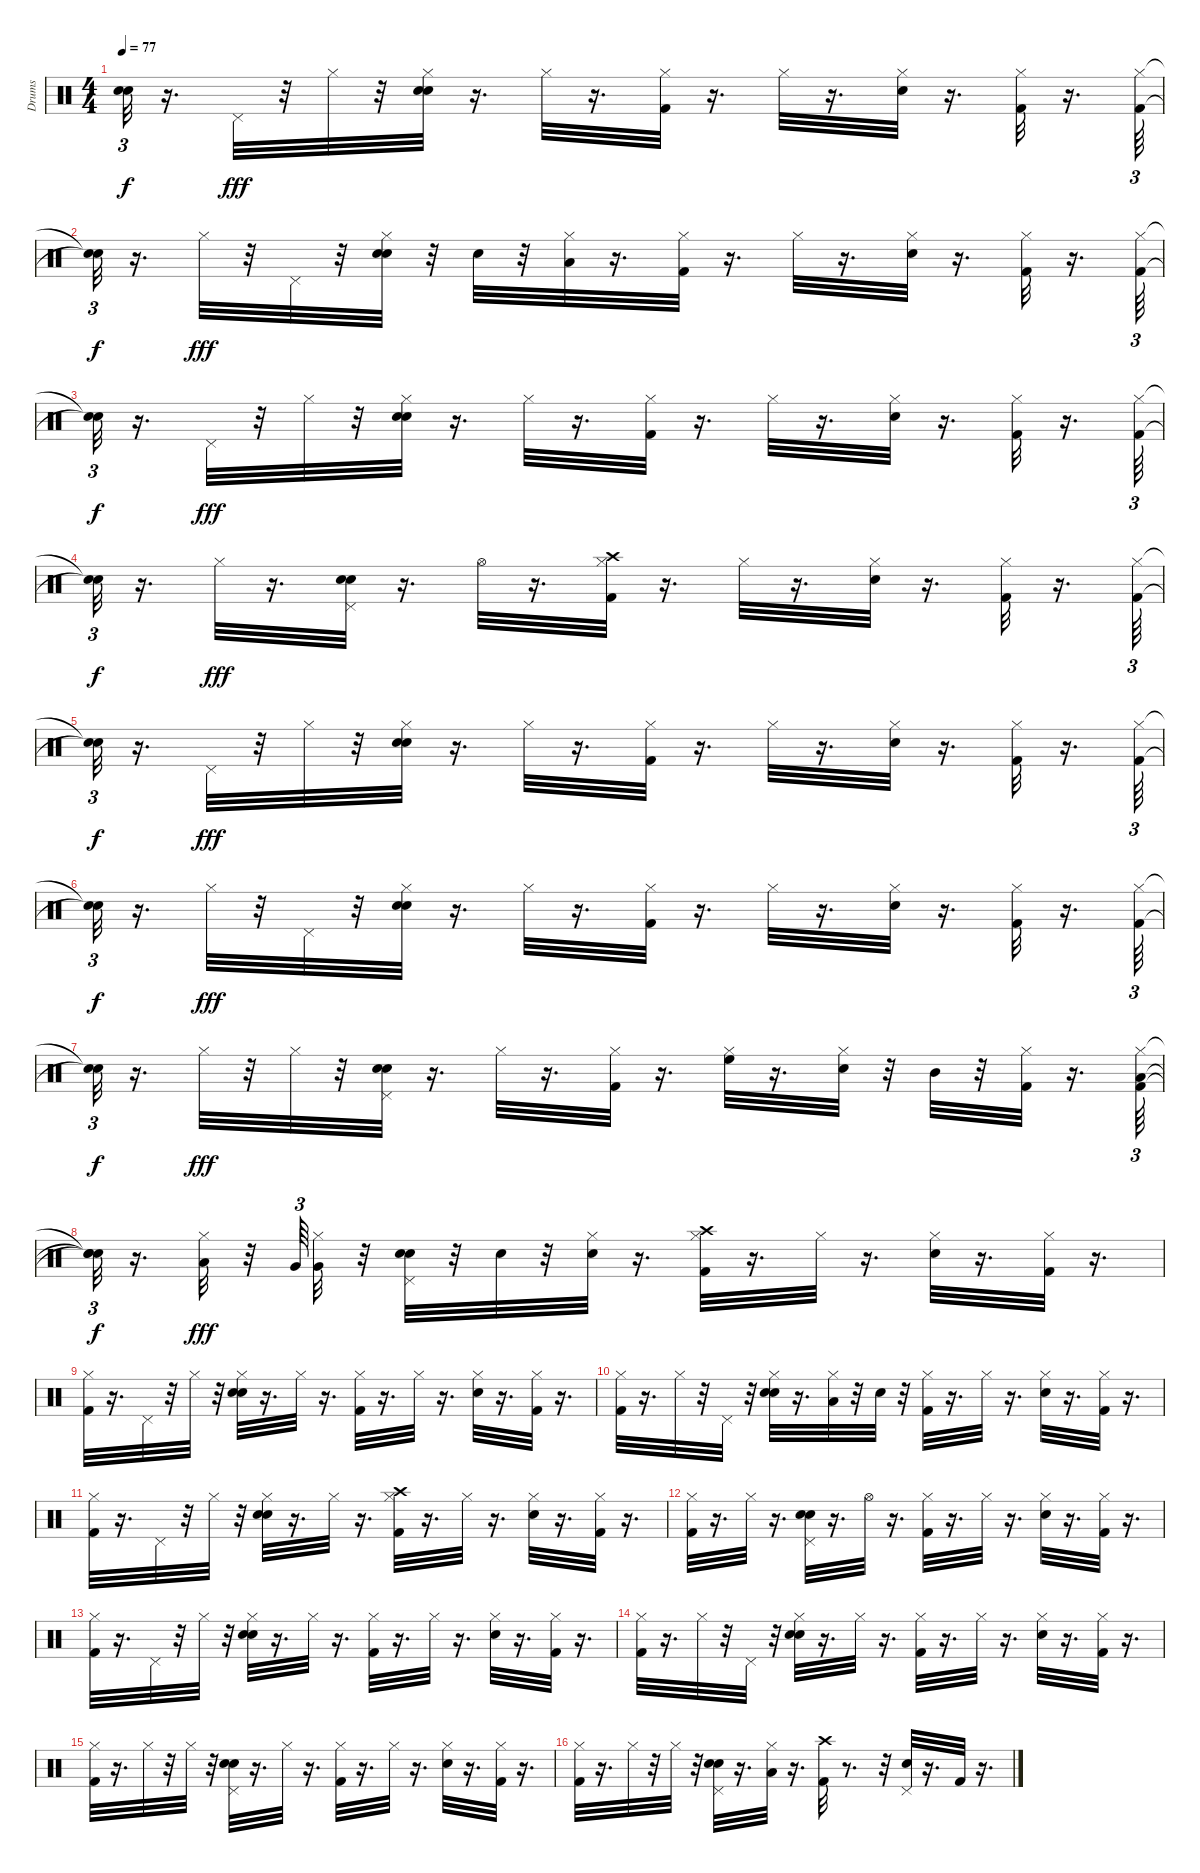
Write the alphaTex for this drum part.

\track ("Drums   " "Drums   ") {instrument percussion}
\staff {score}
\articulation defaults
\ts (4 4)
\tempo 77
\clef neutral
\ks c
("Snare (hit)"{t} "Snare (hit)"{t}).32{tu (3 2) dy f} r.16{d} "Pedal Hi-Hat (hit)".32{dy fff} r.32 "Hi-Hat (closed)".32 r.32 ("Snare (hit) 2" "Hand Clap (hit)" "Hi-Hat (closed)").32 r.16{d} "Hi-Hat (closed)".32 r.16{d} ("Kick (hit) 2" "Hi-Hat (closed)").32 r.16{d} "Hi-Hat (closed)".32 r.16{d} ("Snare (hit) 2" "Hi-Hat (closed)").32 r.16{d} ("Kick (hit) 2" "Hi-Hat (closed)").32 r.16{d} ("Kick (hit) 2" "Hi-Hat (closed)").64{tu (3 2)} |
("Snare (hit)"{t} "Snare (hit)"{t}).32{tu (3 2) dy f} r.16{d} "Hi-Hat (closed)".32{dy fff} r.32 "Pedal Hi-Hat (hit)".32 r.32 ("Snare (hit) 2" "Hand Clap (hit)" "Hi-Hat (closed)").32 r.32 "Snare (hit) 2".32 r.32 ("Hi-Hat (closed)" "Low Tom (hit)").32 r.16{d} ("Kick (hit) 2" "Hi-Hat (closed)").32 r.16{d} "Hi-Hat (closed)".32 r.16{d} ("Snare (hit) 2" "Hi-Hat (closed)").32 r.16{d} ("Kick (hit) 2" "Hi-Hat (closed)").32 r.16{d} ("Kick (hit) 2" "Hi-Hat (closed)").64{tu (3 2)} |
("Snare (hit)"{t} "Snare (hit)"{t}).32{tu (3 2) dy f} r.16{d} "Pedal Hi-Hat (hit)".32{dy fff} r.32 "Hi-Hat (closed)".32 r.32 ("Snare (hit) 2" "Hand Clap (hit)" "Hi-Hat (closed)").32 r.16{d} "Hi-Hat (closed)".32 r.16{d} ("Kick (hit) 2" "Hi-Hat (closed)").32 r.16{d} "Hi-Hat (closed)".32 r.16{d} ("Snare (hit) 2" "Hi-Hat (closed)").32 r.16{d} ("Kick (hit) 2" "Hi-Hat (closed)").32 r.16{d} ("Kick (hit) 2" "Hi-Hat (closed)").64{tu (3 2)} |
("Snare (hit)"{t} "Snare (hit)"{t}).32{tu (3 2) dy f} r.16{d} "Hi-Hat (closed)".32{dy fff} r.16{d} ("Snare (hit) 2" "Hand Clap (hit)" "Pedal Hi-Hat (hit)").32 r.16{d} "Hi-Hat (open)".32 r.16{d} ("Kick (hit) 2" "Hi-Hat (closed)" "Crash high (hit)").32 r.16{d} "Hi-Hat (closed)".32 r.16{d} ("Snare (hit) 2" "Hi-Hat (closed)").32 r.16{d} ("Kick (hit) 2" "Hi-Hat (closed)").32 r.16{d} ("Kick (hit) 2" "Hi-Hat (closed)").64{tu (3 2)} |
("Snare (hit)"{t} "Snare (hit)"{t}).32{tu (3 2) dy f} r.16{d} "Pedal Hi-Hat (hit)".32{dy fff} r.32 "Hi-Hat (closed)".32 r.32 ("Snare (hit) 2" "Hand Clap (hit)" "Hi-Hat (closed)").32 r.16{d} "Hi-Hat (closed)".32 r.16{d} ("Kick (hit) 2" "Hi-Hat (closed)").32 r.16{d} "Hi-Hat (closed)".32 r.16{d} ("Snare (hit) 2" "Hi-Hat (closed)").32 r.16{d} ("Kick (hit) 2" "Hi-Hat (closed)").32 r.16{d} ("Kick (hit) 2" "Hi-Hat (closed)").64{tu (3 2)} |
("Snare (hit)"{t} "Snare (hit)"{t}).32{tu (3 2) dy f} r.16{d} "Hi-Hat (closed)".32{dy fff} r.32 "Pedal Hi-Hat (hit)".32 r.32 ("Snare (hit) 2" "Hand Clap (hit)" "Hi-Hat (closed)").32 r.16{d} "Hi-Hat (closed)".32 r.16{d} ("Kick (hit) 2" "Hi-Hat (closed)").32 r.16{d} "Hi-Hat (closed)".32 r.16{d} ("Snare (hit) 2" "Hi-Hat (closed)").32 r.16{d} ("Kick (hit) 2" "Hi-Hat (closed)").32 r.16{d} ("Kick (hit) 2" "Hi-Hat (closed)").64{tu (3 2)} |
("Snare (hit)"{t} "Snare (hit)"{t}).32{tu (3 2) dy f} r.16{d} "Hi-Hat (closed)".32{dy fff} r.32 "Hi-Hat (closed)".32 r.32 ("Snare (hit) 2" "Hand Clap (hit)" "Pedal Hi-Hat (hit)").32 r.16{d} "Hi-Hat (closed)".32 r.16{d} ("Kick (hit) 2" "Hi-Hat (closed)").32 r.16{d} ("Hi-Hat (closed)" "High Floor Tom (hit)").32 r.16{d} ("Snare (hit) 2" "Hi-Hat (closed)").32 r.32 "Mid Tom (hit)".32 r.32 ("Kick (hit) 2" "Hi-Hat (closed)").32 r.16{d} ("Kick (hit) 2" "Hi-Hat (closed)" "Low Tom (hit)").64{tu (3 2)} |
("Snare (hit)"{t} "Snare (hit)"{t} "Snare (hit)"{t}).32{tu (3 2) dy f} r.16{d} ("Hi-Hat (closed)" "Low Tom (hit)").32{dy fff} r.32 "Very Low Tom (hit)".64{tu (3 2)} ("Hi-Hat (closed)" "Very Low Tom (hit)").32 r.32 ("Snare (hit) 2" "Hand Clap (hit)" "Pedal Hi-Hat (hit)").32 r.32 "Electric Snare (hit)".32 r.32 ("Snare (hit) 2" "Hi-Hat (closed)").32 r.16{d} ("Kick (hit) 2" "Hi-Hat (closed)" "Crash high (hit)").32 r.16{d} "Hi-Hat (closed)".32 r.16{d} ("Snare (hit) 2" "Hi-Hat (closed)").32 r.16{d} ("Kick (hit) 2" "Hi-Hat (closed)").32 r.16{d} |
("Kick (hit) 2" "Hi-Hat (closed)").32 r.16{d} "Pedal Hi-Hat (hit)".32 r.32 "Hi-Hat (closed)".32 r.32 ("Snare (hit) 2" "Hand Clap (hit)" "Hi-Hat (closed)").32 r.16{d} "Hi-Hat (closed)".32 r.16{d} ("Kick (hit) 2" "Hi-Hat (closed)").32 r.16{d} "Hi-Hat (closed)".32 r.16{d} ("Snare (hit) 2" "Hi-Hat (closed)").32 r.16{d} ("Kick (hit) 2" "Hi-Hat (closed)").32 r.16{d} |
("Kick (hit) 2" "Hi-Hat (closed)").32 r.16{d} "Hi-Hat (closed)".32 r.32 "Pedal Hi-Hat (hit)".32 r.32 ("Snare (hit) 2" "Hand Clap (hit)" "Hi-Hat (closed)").32 r.16{d} ("Hi-Hat (closed)" "Low Tom (hit)").32 r.32 "Snare (hit) 2".32 r.32 ("Kick (hit) 2" "Hi-Hat (closed)").32 r.16{d} "Hi-Hat (closed)".32 r.16{d} ("Snare (hit) 2" "Hi-Hat (closed)").32 r.16{d} ("Kick (hit) 2" "Hi-Hat (closed)").32 r.16{d} |
("Kick (hit) 2" "Hi-Hat (closed)").32 r.16{d} "Pedal Hi-Hat (hit)".32 r.32 "Hi-Hat (closed)".32 r.32 ("Snare (hit) 2" "Hand Clap (hit)" "Hi-Hat (closed)").32 r.16{d} "Hi-Hat (closed)".32 r.16{d} ("Kick (hit) 2" "Hi-Hat (closed)" "Crash high (hit)").32 r.16{d} "Hi-Hat (closed)".32 r.16{d} ("Snare (hit) 2" "Hi-Hat (closed)").32 r.16{d} ("Kick (hit) 2" "Hi-Hat (closed)").32 r.16{d} |
("Kick (hit) 2" "Hi-Hat (closed)").32 r.16{d} "Hi-Hat (closed)".32 r.16{d} ("Snare (hit) 2" "Hand Clap (hit)" "Pedal Hi-Hat (hit)").32 r.16{d} "Hi-Hat (open)".32 r.16{d} ("Kick (hit) 2" "Hi-Hat (closed)").32 r.16{d} "Hi-Hat (closed)".32 r.16{d} ("Snare (hit) 2" "Hi-Hat (closed)").32 r.16{d} ("Kick (hit) 2" "Hi-Hat (closed)").32 r.16{d} |
("Kick (hit) 2" "Hi-Hat (closed)").32 r.16{d} "Pedal Hi-Hat (hit)".32 r.32 "Hi-Hat (closed)".32 r.32 ("Snare (hit) 2" "Hand Clap (hit)" "Hi-Hat (closed)").32 r.16{d} "Hi-Hat (closed)".32 r.16{d} ("Kick (hit) 2" "Hi-Hat (closed)").32 r.16{d} "Hi-Hat (closed)".32 r.16{d} ("Snare (hit) 2" "Hi-Hat (closed)").32 r.16{d} ("Kick (hit) 2" "Hi-Hat (closed)").32 r.16{d} |
("Kick (hit) 2" "Hi-Hat (closed)").32 r.16{d} "Hi-Hat (closed)".32 r.32 "Pedal Hi-Hat (hit)".32 r.32 ("Snare (hit) 2" "Hand Clap (hit)" "Hi-Hat (closed)").32 r.16{d} "Hi-Hat (closed)".32 r.16{d} ("Kick (hit) 2" "Hi-Hat (closed)").32 r.16{d} "Hi-Hat (closed)".32 r.16{d} ("Snare (hit) 2" "Hi-Hat (closed)").32 r.16{d} ("Kick (hit) 2" "Hi-Hat (closed)").32 r.16{d} |
("Kick (hit) 2" "Hi-Hat (closed)").32 r.16{d} "Hi-Hat (closed)".32 r.32 "Hi-Hat (closed)".32 r.32 ("Snare (hit) 2" "Hand Clap (hit)" "Pedal Hi-Hat (hit)").32 r.16{d} "Hi-Hat (closed)".32 r.16{d} ("Kick (hit) 2" "Hi-Hat (closed)").32 r.16{d} "Hi-Hat (closed)".32 r.16{d} ("Snare (hit) 2" "Hi-Hat (closed)").32 r.16{d} ("Kick (hit) 2" "Hi-Hat (closed)").32 r.16{d} |
("Kick (hit) 2" "Hi-Hat (closed)").32 r.16{d} "Hi-Hat (closed)".32 r.32 "Hi-Hat (closed)".32 r.32 ("Snare (hit) 2" "Hand Clap (hit)" "Pedal Hi-Hat (hit)").32 r.16{d} ("Hi-Hat (closed)" "Low Tom (hit)").32 r.16{d} ("Kick (hit) 2" "Crash high (hit)").32 r.8{d} r.32 ("Snare (hit) 2" "Pedal Hi-Hat (hit)").32 r.16{d} "Kick (hit) 2".32 r.16{d}
